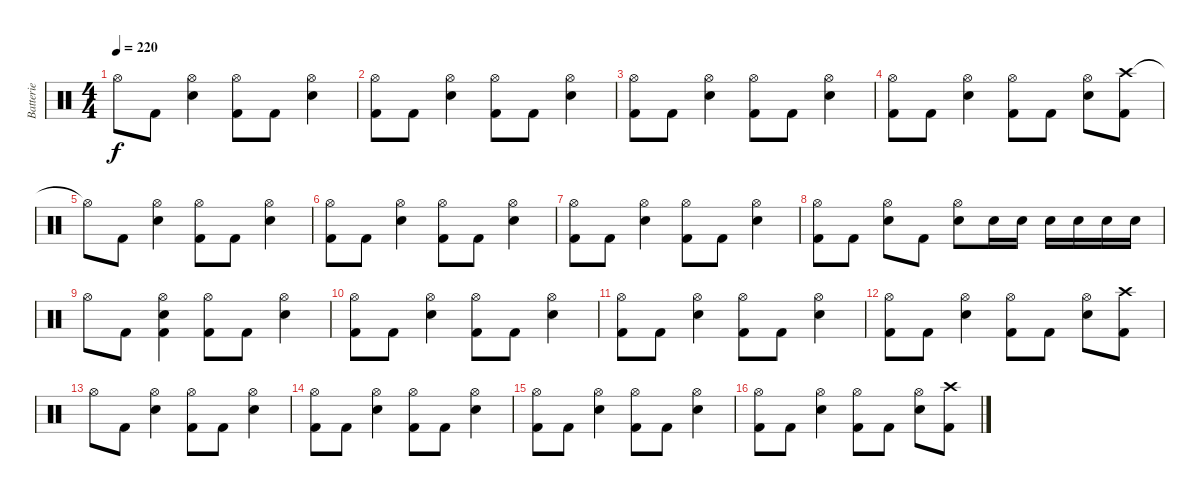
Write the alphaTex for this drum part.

\track ("Batterie" "Batterie") {instrument percussion}
\staff {score}
\articulation defaults
\ts (4 4)
\tempo 220
\clef neutral
\ks c "Hi-Hat (open)"{t}.8{dy f} "Kick (hit) 2".8
("Hi-Hat (open)" "Electric Snare (hit)").4 ("Hi-Hat (open)" "Kick (hit) 2").8 "Kick (hit) 2".8 ("Hi-Hat (open)" "Electric Snare (hit)").4 |
("Hi-Hat (open)" "Kick (hit) 2").8 "Kick (hit) 2".8 ("Hi-Hat (open)" "Electric Snare (hit)").4 ("Hi-Hat (open)" "Kick (hit) 2").8 "Kick (hit) 2".8 ("Hi-Hat (open)" "Electric Snare (hit)").4 |
("Hi-Hat (open)" "Kick (hit) 2").8 "Kick (hit) 2".8 ("Hi-Hat (open)" "Electric Snare (hit)").4 ("Hi-Hat (open)" "Kick (hit) 2").8 "Kick (hit) 2".8 ("Hi-Hat (open)" "Electric Snare (hit)").4 |
("Hi-Hat (open)" "Kick (hit) 2").8 "Kick (hit) 2".8 ("Hi-Hat (open)" "Electric Snare (hit)").4 ("Hi-Hat (open)" "Kick (hit) 2").8 "Kick (hit) 2".8 ("Hi-Hat (open)" "Electric Snare (hit)").8 ("Crash high (hit)" "Kick (hit) 2").8 |
"Hi-Hat (open)"{t}.8 "Kick (hit) 2".8 ("Hi-Hat (open)" "Electric Snare (hit)").4 ("Hi-Hat (open)" "Kick (hit) 2").8 "Kick (hit) 2".8 ("Hi-Hat (open)" "Electric Snare (hit)").4 |
("Hi-Hat (open)" "Kick (hit) 2").8 "Kick (hit) 2".8 ("Hi-Hat (open)" "Electric Snare (hit)").4 ("Hi-Hat (open)" "Kick (hit) 2").8 "Kick (hit) 2".8 ("Hi-Hat (open)" "Electric Snare (hit)").4 |
("Hi-Hat (open)" "Kick (hit) 2").8 "Kick (hit) 2".8 ("Hi-Hat (open)" "Electric Snare (hit)").4 ("Hi-Hat (open)" "Kick (hit) 2").8 "Kick (hit) 2".8 ("Hi-Hat (open)" "Electric Snare (hit)").4 |
("Hi-Hat (open)" "Kick (hit) 2").8 "Kick (hit) 2".8 ("Hi-Hat (open)" "Electric Snare (hit)").8 "Kick (hit) 2".8 ("Hi-Hat (open)" "Electric Snare (hit)").8 "Electric Snare (hit)".16 "Electric Snare (hit)".16 "Electric Snare (hit)".16 "Electric Snare (hit)".16 "Electric Snare (hit)".16 "Electric Snare (hit)".16 |
"Hi-Hat (open)".8 "Kick (hit) 2".8 ("Hi-Hat (open)" "Electric Snare (hit)" "Kick (hit) 2").4 ("Hi-Hat (open)" "Kick (hit) 2").8 "Kick (hit) 2".8 ("Hi-Hat (open)" "Electric Snare (hit)").4 |
("Hi-Hat (open)" "Kick (hit) 2").8 "Kick (hit) 2".8 ("Hi-Hat (open)" "Electric Snare (hit)").4 ("Hi-Hat (open)" "Kick (hit) 2").8 "Kick (hit) 2".8 ("Hi-Hat (open)" "Electric Snare (hit)").4 |
("Hi-Hat (open)" "Kick (hit) 2").8 "Kick (hit) 2".8 ("Hi-Hat (open)" "Electric Snare (hit)").4 ("Hi-Hat (open)" "Kick (hit) 2").8 "Kick (hit) 2".8 ("Hi-Hat (open)" "Electric Snare (hit)").4 |
("Hi-Hat (open)" "Kick (hit) 2").8 "Kick (hit) 2".8 ("Hi-Hat (open)" "Electric Snare (hit)").4 ("Hi-Hat (open)" "Kick (hit) 2").8 "Kick (hit) 2".8 ("Hi-Hat (open)" "Electric Snare (hit)").8 ("Crash high (hit)" "Kick (hit) 2").8 |
"Hi-Hat (open)".8 "Kick (hit) 2".8 ("Hi-Hat (open)" "Electric Snare (hit)").4 ("Hi-Hat (open)" "Kick (hit) 2").8 "Kick (hit) 2".8 ("Hi-Hat (open)" "Electric Snare (hit)").4 |
("Hi-Hat (open)" "Kick (hit) 2").8 "Kick (hit) 2".8 ("Hi-Hat (open)" "Electric Snare (hit)").4 ("Hi-Hat (open)" "Kick (hit) 2").8 "Kick (hit) 2".8 ("Hi-Hat (open)" "Electric Snare (hit)").4 |
("Hi-Hat (open)" "Kick (hit) 2").8 "Kick (hit) 2".8 ("Hi-Hat (open)" "Electric Snare (hit)").4 ("Hi-Hat (open)" "Kick (hit) 2").8 "Kick (hit) 2".8 ("Hi-Hat (open)" "Electric Snare (hit)").4 |
("Hi-Hat (open)" "Kick (hit) 2").8 "Kick (hit) 2".8 ("Hi-Hat (open)" "Electric Snare (hit)").4 ("Hi-Hat (open)" "Kick (hit) 2").8 "Kick (hit) 2".8 ("Hi-Hat (open)" "Electric Snare (hit)").8 ("Crash high (hit)" "Kick (hit) 2").8
